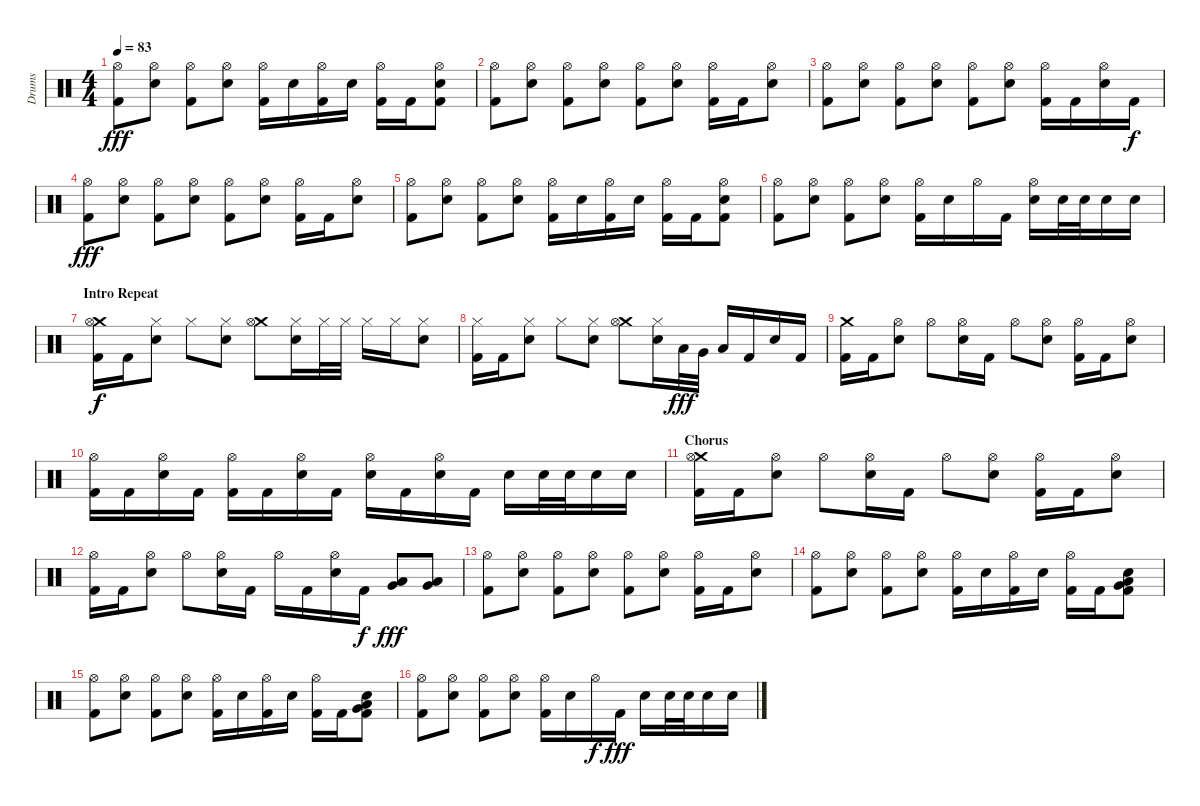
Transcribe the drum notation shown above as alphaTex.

\track ("Drums" "Drums") {instrument percussion}
\staff {score}
\articulation defaults
\ts (4 4)
\tempo 83
\clef neutral
\ks c
("Hi-Hat (open)" "Kick (hit) 2").8{dy fff} ("Hi-Hat (open)" "Electric Snare (hit)").8 ("Hi-Hat (open)" "Kick (hit) 2").8 ("Hi-Hat (open)" "Electric Snare (hit)").8 ("Hi-Hat (open)" "Kick (hit) 2").16 "Electric Snare (hit)".16 ("Hi-Hat (open)" "Kick (hit) 2").16 "Electric Snare (hit)".16 ("Hi-Hat (open)" "Kick (hit) 2").16 "Kick (hit) 2".16 ("Hi-Hat (open)" "Electric Snare (hit)" "Kick (hit) 2").8 |
("Hi-Hat (open)" "Kick (hit) 2").8 ("Hi-Hat (open)" "Electric Snare (hit)").8 ("Hi-Hat (open)" "Kick (hit) 2").8 ("Hi-Hat (open)" "Electric Snare (hit)").8 ("Hi-Hat (open)" "Kick (hit) 2").8 ("Hi-Hat (open)" "Electric Snare (hit)").8 ("Hi-Hat (open)" "Kick (hit) 2").16 "Kick (hit) 2".16 ("Hi-Hat (open)" "Electric Snare (hit)").8 |
("Hi-Hat (open)" "Kick (hit) 2").8 ("Hi-Hat (open)" "Electric Snare (hit)").8 ("Hi-Hat (open)" "Kick (hit) 2").8 ("Hi-Hat (open)" "Electric Snare (hit)").8 ("Hi-Hat (open)" "Kick (hit) 2").8 ("Hi-Hat (open)" "Electric Snare (hit)").8 ("Hi-Hat (open)" "Kick (hit) 2").16 "Kick (hit) 2".16 ("Hi-Hat (open)" "Electric Snare (hit)").16 "Kick (hit) 2".16{dy f} |
("Hi-Hat (open)" "Kick (hit) 2").8{dy fff} ("Hi-Hat (open)" "Electric Snare (hit)").8 ("Hi-Hat (open)" "Kick (hit) 2").8 ("Hi-Hat (open)" "Electric Snare (hit)").8 ("Hi-Hat (open)" "Kick (hit) 2").8 ("Hi-Hat (open)" "Electric Snare (hit)").8 ("Hi-Hat (open)" "Kick (hit) 2").16 "Kick (hit) 2".16 ("Hi-Hat (open)" "Electric Snare (hit)").8 |
("Hi-Hat (open)" "Kick (hit) 2").8 ("Hi-Hat (open)" "Electric Snare (hit)").8 ("Hi-Hat (open)" "Kick (hit) 2").8 ("Hi-Hat (open)" "Electric Snare (hit)").8 ("Hi-Hat (open)" "Kick (hit) 2").16 "Electric Snare (hit)".16 ("Hi-Hat (open)" "Kick (hit) 2").16 "Electric Snare (hit)".16 ("Hi-Hat (open)" "Kick (hit) 2").16 "Kick (hit) 2".16 ("Hi-Hat (open)" "Electric Snare (hit)" "Kick (hit) 2").8 |
("Hi-Hat (open)" "Kick (hit) 2").8 ("Hi-Hat (open)" "Electric Snare (hit)").8 ("Hi-Hat (open)" "Kick (hit) 2").8 ("Hi-Hat (open)" "Electric Snare (hit)").8 ("Hi-Hat (open)" "Kick (hit) 2").16 "Electric Snare (hit)".16 "Hi-Hat (open)".16 "Kick (hit) 2".16 ("Hi-Hat (open)" "Electric Snare (hit)").16 "Electric Snare (hit)".32 "Electric Snare (hit)".32 "Electric Snare (hit)".16 "Electric Snare (hit)".16 |
\section ("" "Intro Repeat")
("Crash medium (hit)" "Hi-Hat (open)" "Kick (hit) 2").16{dy f} "Kick (hit) 2".16 ("Hi-Hat (closed)" "Electric Snare (hit)").8 "Hi-Hat (closed)".8 ("Hi-Hat (closed)" "Electric Snare (hit)").8 ("Crash medium (hit)" "Hi-Hat (open)").8 ("Hi-Hat (closed)" "Electric Snare (hit)").16 "Hi-Hat (closed)".32 "Hi-Hat (closed)".32 "Hi-Hat (closed)".16 "Hi-Hat (closed)".16 ("Hi-Hat (closed)" "Electric Snare (hit)").8 |
("Hi-Hat (closed)" "Kick (hit) 2").16 "Kick (hit) 2".16 ("Hi-Hat (closed)" "Electric Snare (hit)").8 "Hi-Hat (closed)".8 ("Hi-Hat (closed)" "Electric Snare (hit)").8 ("Crash medium (hit)" "Hi-Hat (open)").8 ("Hi-Hat (closed)" "Electric Snare (hit)").16 "Low Tom (hit)".32{dy fff} "Very Low Tom (hit)".32 "Low Floor Tom (hit)".16 "Kick (hit) 2".16 "Electric Snare (hit)".16 "Kick (hit) 2".16 |
("Crash medium (hit)" "Kick (hit) 2").16 "Kick (hit) 2".16 ("Hi-Hat (open)" "Electric Snare (hit)").8 "Hi-Hat (open)".8 ("Hi-Hat (open)" "Electric Snare (hit)").16 "Kick (hit) 2".16 "Hi-Hat (open)".8 ("Hi-Hat (open)" "Electric Snare (hit)").8 ("Hi-Hat (open)" "Kick (hit) 2").16 "Kick (hit) 2".16 ("Hi-Hat (open)" "Electric Snare (hit)").8 |
("Hi-Hat (open)" "Kick (hit) 2").16 "Kick (hit) 2".16 ("Hi-Hat (open)" "Electric Snare (hit)").16 "Kick (hit) 2".16 ("Hi-Hat (open)" "Kick (hit) 2").16 "Kick (hit) 2".16 ("Hi-Hat (open)" "Electric Snare (hit)").16 "Kick (hit) 2".16 ("Hi-Hat (open)" "Electric Snare (hit)").16 "Kick (hit) 2".16 ("Hi-Hat (open)" "Electric Snare (hit)").16 "Kick (hit) 2".16 "Electric Snare (hit)".16 "Electric Snare (hit)".32 "Electric Snare (hit)".32 "Electric Snare (hit)".16 "Electric Snare (hit)".16 |
\section ("" "Chorus")
("Crash medium (hit)" "Hi-Hat (open)" "Kick (hit) 2").16 "Kick (hit) 2".16 ("Hi-Hat (open)" "Electric Snare (hit)").8 "Hi-Hat (open)".8 ("Hi-Hat (open)" "Electric Snare (hit)").16 "Kick (hit) 2".16 "Hi-Hat (open)".8 ("Hi-Hat (open)" "Electric Snare (hit)").8 ("Hi-Hat (open)" "Kick (hit) 2").16 "Kick (hit) 2".16 ("Hi-Hat (open)" "Electric Snare (hit)").8 |
("Hi-Hat (open)" "Kick (hit) 2").16 "Kick (hit) 2".16 ("Hi-Hat (open)" "Electric Snare (hit)").8 "Hi-Hat (open)".8 ("Hi-Hat (open)" "Electric Snare (hit)").16 "Kick (hit) 2".16 "Hi-Hat (open)".16 "Kick (hit) 2".16 ("Hi-Hat (open)" "Electric Snare (hit)").16 "Kick (hit) 2".16{dy f} ("Very Low Tom (hit)" "Low Tom (hit)").8{dy fff} ("Low Floor Tom (hit)" "Very Low Tom (hit)").8 |
("Hi-Hat (open)" "Kick (hit) 2").8 ("Hi-Hat (open)" "Electric Snare (hit)").8 ("Hi-Hat (open)" "Kick (hit) 2").8 ("Hi-Hat (open)" "Electric Snare (hit)").8 ("Hi-Hat (open)" "Kick (hit) 2").8 ("Hi-Hat (open)" "Electric Snare (hit)").8 ("Hi-Hat (open)" "Kick (hit) 2").16 "Kick (hit) 2".16 ("Hi-Hat (open)" "Electric Snare (hit)").8 |
("Hi-Hat (open)" "Kick (hit) 2").8 ("Hi-Hat (open)" "Electric Snare (hit)").8 ("Hi-Hat (open)" "Kick (hit) 2").8 ("Hi-Hat (open)" "Electric Snare (hit)").8 ("Hi-Hat (open)" "Kick (hit) 2").16 "Electric Snare (hit)".16 ("Hi-Hat (open)" "Kick (hit) 2").16 "Electric Snare (hit)".16 ("Hi-Hat (open)" "Kick (hit) 2").16 "Kick (hit) 2".16 ("Electric Snare (hit)" "Very Low Tom (hit)" "Low Tom (hit)" "Kick (hit) 2").8 |
("Hi-Hat (open)" "Kick (hit) 2").8 ("Hi-Hat (open)" "Electric Snare (hit)").8 ("Hi-Hat (open)" "Kick (hit) 2").8 ("Hi-Hat (open)" "Electric Snare (hit)").8 ("Hi-Hat (open)" "Kick (hit) 2").16 "Electric Snare (hit)".16 ("Hi-Hat (open)" "Kick (hit) 2").16 "Electric Snare (hit)".16 ("Hi-Hat (open)" "Kick (hit) 2").16 "Kick (hit) 2".16 ("Electric Snare (hit)" "Very Low Tom (hit)" "Low Tom (hit)" "Kick (hit) 2").8 |
("Hi-Hat (open)" "Kick (hit) 2").8 ("Hi-Hat (open)" "Electric Snare (hit)").8 ("Hi-Hat (open)" "Kick (hit) 2").8 ("Hi-Hat (open)" "Electric Snare (hit)").8 ("Hi-Hat (open)" "Kick (hit) 2").16 "Electric Snare (hit)".16 "Hi-Hat (open)".16{dy f} "Kick (hit) 2".16{dy fff} "Electric Snare (hit)".16 "Electric Snare (hit)".32 "Electric Snare (hit)".32 "Electric Snare (hit)".16 "Electric Snare (hit)".16
